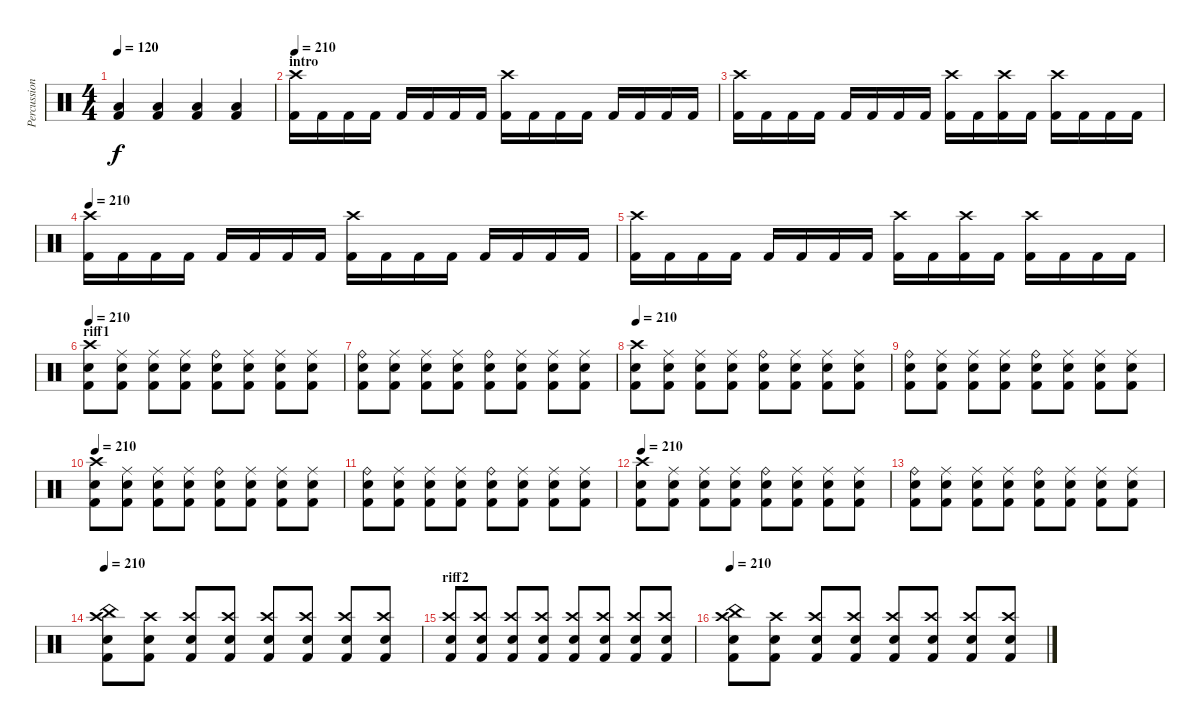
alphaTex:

\track ("Percussion" "Percussion") {instrument percussion}
\staff {score}
\articulation defaults
\ts (4 4)
\tempo 120
\tempo 210
\tempo 120
\clef neutral
\ks c
("Low Floor Tom (hit)" "Kick (hit) 2").4{dy f} ("Low Floor Tom (hit)" "Kick (hit) 2").4 ("Low Floor Tom (hit)" "Kick (hit) 2").4 ("Low Floor Tom (hit)" "Kick (hit) 2").4 |
\section ("" "intro")
\tempo 210
("Crash high (hit)" "Kick (hit) 2").16 "Kick (hit) 2".16 "Kick (hit) 2".16 "Kick (hit) 2".16 "Kick (hit) 2".16 "Kick (hit) 2".16 "Kick (hit) 2".16 "Kick (hit) 2".16 ("Crash high (hit)" "Kick (hit) 2").16 "Kick (hit) 2".16 "Kick (hit) 2".16 "Kick (hit) 2".16 "Kick (hit) 2".16 "Kick (hit) 2".16 "Kick (hit) 2".16 "Kick (hit) 2".16 |
("Crash high (hit)" "Kick (hit) 2").16 "Kick (hit) 2".16 "Kick (hit) 2".16 "Kick (hit) 2".16 "Kick (hit) 2".16 "Kick (hit) 2".16 "Kick (hit) 2".16 "Kick (hit) 2".16 ("Crash high (hit)" "Kick (hit) 2").16 "Kick (hit) 2".16 ("Crash high (hit)" "Kick (hit) 2").16 "Kick (hit) 2".16 ("Crash high (hit)" "Kick (hit) 2").16 "Kick (hit) 2".16 "Kick (hit) 2".16 "Kick (hit) 2".16 |
\tempo 210
("Crash high (hit)" "Kick (hit) 2").16 "Kick (hit) 2".16 "Kick (hit) 2".16 "Kick (hit) 2".16 "Kick (hit) 2".16 "Kick (hit) 2".16 "Kick (hit) 2".16 "Kick (hit) 2".16 ("Crash high (hit)" "Kick (hit) 2").16 "Kick (hit) 2".16 "Kick (hit) 2".16 "Kick (hit) 2".16 "Kick (hit) 2".16 "Kick (hit) 2".16 "Kick (hit) 2".16 "Kick (hit) 2".16 |
("Crash high (hit)" "Kick (hit) 2").16 "Kick (hit) 2".16 "Kick (hit) 2".16 "Kick (hit) 2".16 "Kick (hit) 2".16 "Kick (hit) 2".16 "Kick (hit) 2".16 "Kick (hit) 2".16 ("Crash high (hit)" "Kick (hit) 2").16 "Kick (hit) 2".16 ("Crash high (hit)" "Kick (hit) 2").16 "Kick (hit) 2".16 ("Crash high (hit)" "Kick (hit) 2").16 "Kick (hit) 2".16 "Kick (hit) 2".16 "Kick (hit) 2".16 |
\section ("" "riff1")
\tempo 210
("Crash high (hit)" "Snare (hit) 2" "Kick (hit) 2").8 ("Ride (middle)" "Snare (hit) 2" "Kick (hit) 2").8 ("Ride (middle)" "Snare (hit) 2" "Kick (hit) 2").8 ("Ride (middle)" "Snare (hit) 2" "Kick (hit) 2").8 ("Ride (bell)" "Snare (hit) 2" "Kick (hit) 2").8 ("Ride (middle)" "Snare (hit) 2" "Kick (hit) 2").8 ("Ride (middle)" "Snare (hit) 2" "Kick (hit) 2").8 ("Ride (middle)" "Snare (hit) 2" "Kick (hit) 2").8 |
("Ride (bell)" "Snare (hit) 2" "Kick (hit) 2").8 ("Ride (middle)" "Snare (hit) 2" "Kick (hit) 2").8 ("Ride (middle)" "Snare (hit) 2" "Kick (hit) 2").8 ("Ride (middle)" "Snare (hit) 2" "Kick (hit) 2").8 ("Ride (bell)" "Snare (hit) 2" "Kick (hit) 2").8 ("Ride (middle)" "Snare (hit) 2" "Kick (hit) 2").8 ("Ride (middle)" "Snare (hit) 2" "Kick (hit) 2").8 ("Ride (middle)" "Snare (hit) 2" "Kick (hit) 2").8 |
\tempo 210
("Crash high (hit)" "Snare (hit) 2" "Kick (hit) 2").8 ("Ride (middle)" "Snare (hit) 2" "Kick (hit) 2").8 ("Ride (middle)" "Snare (hit) 2" "Kick (hit) 2").8 ("Ride (middle)" "Snare (hit) 2" "Kick (hit) 2").8 ("Ride (bell)" "Snare (hit) 2" "Kick (hit) 2").8 ("Ride (middle)" "Snare (hit) 2" "Kick (hit) 2").8 ("Ride (middle)" "Snare (hit) 2" "Kick (hit) 2").8 ("Ride (middle)" "Snare (hit) 2" "Kick (hit) 2").8 |
("Ride (bell)" "Snare (hit) 2" "Kick (hit) 2").8 ("Ride (middle)" "Snare (hit) 2" "Kick (hit) 2").8 ("Ride (middle)" "Snare (hit) 2" "Kick (hit) 2").8 ("Ride (middle)" "Snare (hit) 2" "Kick (hit) 2").8 ("Ride (bell)" "Snare (hit) 2" "Kick (hit) 2").8 ("Ride (middle)" "Snare (hit) 2" "Kick (hit) 2").8 ("Ride (middle)" "Snare (hit) 2" "Kick (hit) 2").8 ("Ride (middle)" "Snare (hit) 2" "Kick (hit) 2").8 |
\tempo 210
("Crash high (hit)" "Snare (hit) 2" "Kick (hit) 2").8 ("Ride (middle)" "Snare (hit) 2" "Kick (hit) 2").8 ("Ride (middle)" "Snare (hit) 2" "Kick (hit) 2").8 ("Ride (middle)" "Snare (hit) 2" "Kick (hit) 2").8 ("Ride (bell)" "Snare (hit) 2" "Kick (hit) 2").8 ("Ride (middle)" "Snare (hit) 2" "Kick (hit) 2").8 ("Ride (middle)" "Snare (hit) 2" "Kick (hit) 2").8 ("Ride (middle)" "Snare (hit) 2" "Kick (hit) 2").8 |
("Ride (bell)" "Snare (hit) 2" "Kick (hit) 2").8 ("Ride (middle)" "Snare (hit) 2" "Kick (hit) 2").8 ("Ride (middle)" "Snare (hit) 2" "Kick (hit) 2").8 ("Ride (middle)" "Snare (hit) 2" "Kick (hit) 2").8 ("Ride (bell)" "Snare (hit) 2" "Kick (hit) 2").8 ("Ride (middle)" "Snare (hit) 2" "Kick (hit) 2").8 ("Ride (middle)" "Snare (hit) 2" "Kick (hit) 2").8 ("Ride (middle)" "Snare (hit) 2" "Kick (hit) 2").8 |
\tempo 210
("Crash high (hit)" "Snare (hit) 2" "Kick (hit) 2").8 ("Ride (middle)" "Snare (hit) 2" "Kick (hit) 2").8 ("Ride (middle)" "Snare (hit) 2" "Kick (hit) 2").8 ("Ride (middle)" "Snare (hit) 2" "Kick (hit) 2").8 ("Ride (bell)" "Snare (hit) 2" "Kick (hit) 2").8 ("Ride (middle)" "Snare (hit) 2" "Kick (hit) 2").8 ("Ride (middle)" "Snare (hit) 2" "Kick (hit) 2").8 ("Ride (middle)" "Snare (hit) 2" "Kick (hit) 2").8 |
("Ride (bell)" "Snare (hit) 2" "Kick (hit) 2").8 ("Ride (middle)" "Snare (hit) 2" "Kick (hit) 2").8 ("Ride (middle)" "Snare (hit) 2" "Kick (hit) 2").8 ("Ride (middle)" "Snare (hit) 2" "Kick (hit) 2").8 ("Ride (bell)" "Snare (hit) 2" "Kick (hit) 2").8 ("Ride (middle)" "Snare (hit) 2" "Kick (hit) 2").8 ("Ride (middle)" "Snare (hit) 2" "Kick (hit) 2").8 ("Ride (middle)" "Snare (hit) 2" "Kick (hit) 2").8 |
\tempo 210
("China (hit)" "Crash high (hit)" "Snare (hit) 2" "Kick (hit) 2").8 ("Crash high (hit)" "Snare (hit) 2" "Kick (hit) 2").8 ("Crash high (hit)" "Snare (hit) 2" "Kick (hit) 2").8 ("Crash high (hit)" "Snare (hit) 2" "Kick (hit) 2").8 ("Crash high (hit)" "Snare (hit) 2" "Kick (hit) 2").8 ("Crash high (hit)" "Snare (hit) 2" "Kick (hit) 2").8 ("Crash high (hit)" "Snare (hit) 2" "Kick (hit) 2").8 ("Crash high (hit)" "Snare (hit) 2" "Kick (hit) 2").8 |
\section ("" "riff2")
("Crash high (hit)" "Snare (hit) 2" "Kick (hit) 2").8 ("Crash high (hit)" "Snare (hit) 2" "Kick (hit) 2").8 ("Crash high (hit)" "Snare (hit) 2" "Kick (hit) 2").8 ("Crash high (hit)" "Snare (hit) 2" "Kick (hit) 2").8 ("Crash high (hit)" "Snare (hit) 2" "Kick (hit) 2").8 ("Crash high (hit)" "Snare (hit) 2" "Kick (hit) 2").8 ("Crash high (hit)" "Snare (hit) 2" "Kick (hit) 2").8 ("Crash high (hit)" "Snare (hit) 2" "Kick (hit) 2").8 |
\tempo 210
("China (hit)" "Crash high (hit)" "Snare (hit) 2" "Kick (hit) 2").8 ("Crash high (hit)" "Snare (hit) 2" "Kick (hit) 2").8 ("Crash high (hit)" "Snare (hit) 2" "Kick (hit) 2").8 ("Crash high (hit)" "Snare (hit) 2" "Kick (hit) 2").8 ("Crash high (hit)" "Snare (hit) 2" "Kick (hit) 2").8 ("Crash high (hit)" "Snare (hit) 2" "Kick (hit) 2").8 ("Crash high (hit)" "Snare (hit) 2" "Kick (hit) 2").8 ("Crash high (hit)" "Snare (hit) 2" "Kick (hit) 2").8
